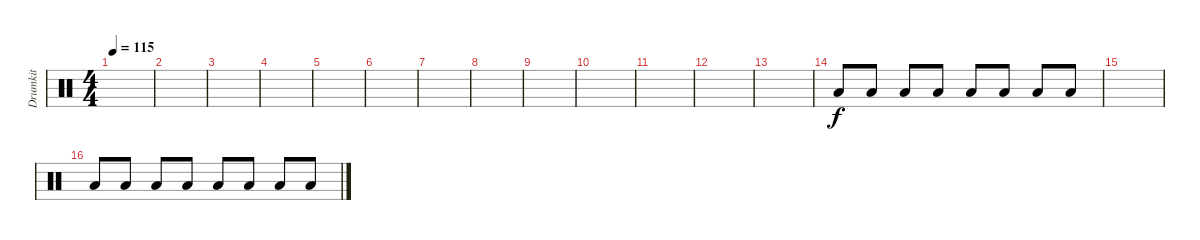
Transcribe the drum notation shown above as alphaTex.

\track ("Drumkit" "Drumkit") {instrument percussion}
\staff {score}
\articulation defaults
\ts (4 4)
\tempo 115
\clef neutral
\ks c
|
|
|
|
|
|
|
|
|
|
|
|
|
"Low Floor Tom (hit)".8 "Low Floor Tom (hit)".8 "Low Floor Tom (hit)".8 "Low Floor Tom (hit)".8 "Low Floor Tom (hit)".8 "Low Floor Tom (hit)".8 "Low Floor Tom (hit)".8 "Low Floor Tom (hit)".8 |
|
"Low Floor Tom (hit)".8 "Low Floor Tom (hit)".8 "Low Floor Tom (hit)".8 "Low Floor Tom (hit)".8 "Low Floor Tom (hit)".8 "Low Floor Tom (hit)".8 "Low Floor Tom (hit)".8 "Low Floor Tom (hit)".8
